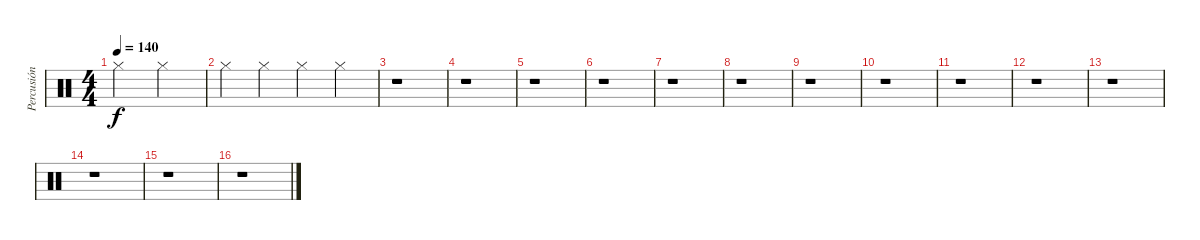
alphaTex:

\track ("Percusión" "Percusión") {instrument percussion}
\staff {score}
\articulation defaults
\ts (4 4)
\tempo 140
\clef neutral
\ks c "Hi-Hat (closed)".2{dy f} "Hi-Hat (closed)".2
|
"Hi-Hat (closed)".4 "Hi-Hat (closed)".4 "Hi-Hat (closed)".4 "Hi-Hat (closed)".4 |
r.1 |
r.1 |
r.1 |
r.1 |
r.1 |
r.1 |
r.1 |
r.1 |
r.1 |
r.1 |
r.1 |
r.1 |
r.1 |
r.1
